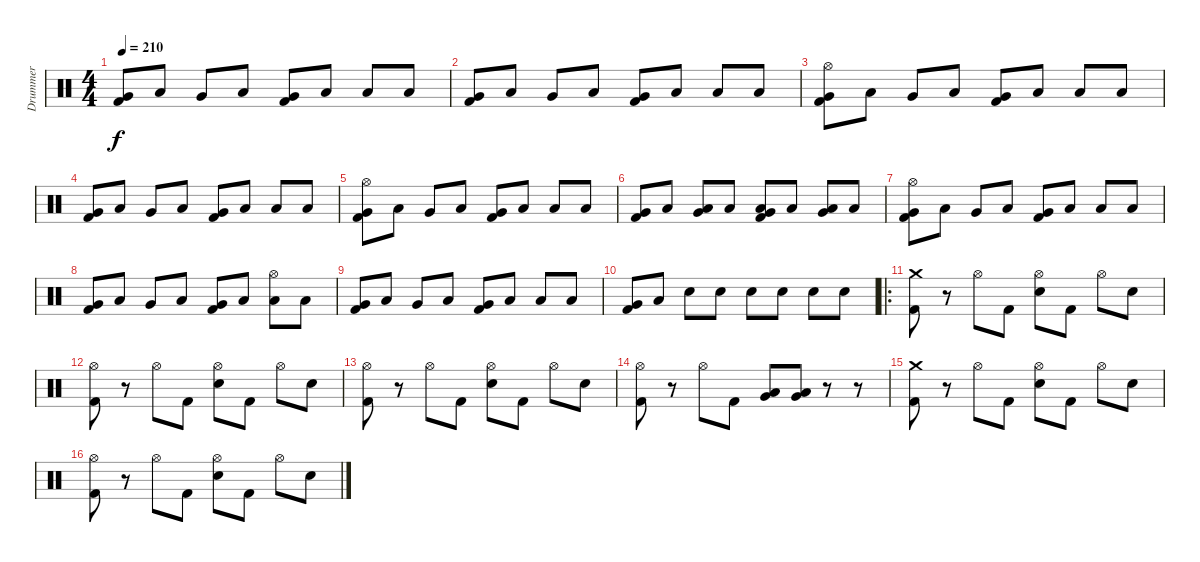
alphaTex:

\track ("Drummer" "Drummer") {instrument percussion}
\staff {score}
\articulation defaults
\ts (4 4)
\tempo 210
\clef neutral
\ks c
("Very Low Tom (hit)" "Kick (hit) 2").8{dy f} "Low Tom (hit)".8 "Very Low Tom (hit)".8 "Low Floor Tom (hit)".8 ("Very Low Tom (hit)" "Kick (hit) 2").8 "Low Floor Tom (hit)".8 "Low Tom (hit)".8 "Low Floor Tom (hit)".8 |
("Very Low Tom (hit)" "Kick (hit) 2").8 "Low Tom (hit)".8 "Very Low Tom (hit)".8 "Low Floor Tom (hit)".8 ("Very Low Tom (hit)" "Kick (hit) 2").8 "Low Floor Tom (hit)".8 "Low Tom (hit)".8 "Low Floor Tom (hit)".8 |
("Hi-Hat (open)" "Very Low Tom (hit)" "Kick (hit) 2").8 "Low Tom (hit)".8 "Very Low Tom (hit)".8 "Low Floor Tom (hit)".8 ("Very Low Tom (hit)" "Kick (hit) 2").8 "Low Floor Tom (hit)".8 "Low Tom (hit)".8 "Low Floor Tom (hit)".8 |
("Very Low Tom (hit)" "Kick (hit) 2").8 "Low Tom (hit)".8 "Very Low Tom (hit)".8 "Low Floor Tom (hit)".8 ("Very Low Tom (hit)" "Kick (hit) 2").8 "Low Floor Tom (hit)".8 "Low Tom (hit)".8 "Low Floor Tom (hit)".8 |
("Hi-Hat (open)" "Very Low Tom (hit)" "Kick (hit) 2").8 "Low Tom (hit)".8 "Very Low Tom (hit)".8 "Low Floor Tom (hit)".8 ("Very Low Tom (hit)" "Kick (hit) 2").8 "Low Floor Tom (hit)".8 "Low Tom (hit)".8 "Low Floor Tom (hit)".8 |
("Very Low Tom (hit)" "Kick (hit) 2").8 "Low Tom (hit)".8 ("Low Tom (hit)" "Very Low Tom (hit)").8 "Low Floor Tom (hit)".8 ("Low Tom (hit)" "Very Low Tom (hit)" "Kick (hit) 2").8 "Low Floor Tom (hit)".8 ("Very Low Tom (hit)" "Low Tom (hit)").8 "Low Floor Tom (hit)".8 |
("Hi-Hat (open)" "Very Low Tom (hit)" "Kick (hit) 2").8 "Low Tom (hit)".8 "Very Low Tom (hit)".8 "Low Floor Tom (hit)".8 ("Very Low Tom (hit)" "Kick (hit) 2").8 "Low Floor Tom (hit)".8 "Low Tom (hit)".8 "Low Floor Tom (hit)".8 |
("Very Low Tom (hit)" "Kick (hit) 2").8 "Low Tom (hit)".8 "Very Low Tom (hit)".8 "Low Floor Tom (hit)".8 ("Very Low Tom (hit)" "Kick (hit) 2").8 "Low Floor Tom (hit)".8 ("Hi-Hat (open)" "Low Tom (hit)").8 "Low Floor Tom (hit)".8 |
("Very Low Tom (hit)" "Kick (hit) 2").8 "Low Tom (hit)".8 "Very Low Tom (hit)".8 "Low Floor Tom (hit)".8 ("Very Low Tom (hit)" "Kick (hit) 2").8 "Low Floor Tom (hit)".8 "Low Tom (hit)".8 "Low Floor Tom (hit)".8 |
("Very Low Tom (hit)" "Kick (hit) 2").8 "Low Tom (hit)".8 "Electric Snare (hit)".8 "Electric Snare (hit)".8 "Electric Snare (hit)".8 "Electric Snare (hit)".8 "Electric Snare (hit)".8 "Electric Snare (hit)".8 |
\ro
("Crash medium (hit)" "Kick (hit) 2").8 r.8 "Hi-Hat (open)".8 "Kick (hit) 2".8 ("Hi-Hat (open)" "Electric Snare (hit)").8 "Kick (hit) 2".8 "Hi-Hat (open)".8 "Electric Snare (hit)".8 |
("Hi-Hat (open)" "Kick (hit) 2").8 r.8 "Hi-Hat (open)".8 "Kick (hit) 2".8 ("Hi-Hat (open)" "Electric Snare (hit)").8 "Kick (hit) 2".8 "Hi-Hat (open)".8 "Electric Snare (hit)".8 |
("Hi-Hat (open)" "Kick (hit) 2").8 r.8 "Hi-Hat (open)".8 "Kick (hit) 2".8 ("Hi-Hat (open)" "Electric Snare (hit)").8 "Kick (hit) 2".8 "Hi-Hat (open)".8 "Electric Snare (hit)".8 |
("Hi-Hat (open)" "Kick (hit) 2").8 r.8 "Hi-Hat (open)".8 "Kick (hit) 2".8 ("Low Tom (hit)" "Very Low Tom (hit)").8 ("Low Tom (hit)" "Very Low Tom (hit)").8 r.8 r.8 |
("Crash medium (hit)" "Kick (hit) 2").8 r.8 "Hi-Hat (open)".8 "Kick (hit) 2".8 ("Hi-Hat (open)" "Electric Snare (hit)").8 "Kick (hit) 2".8 "Hi-Hat (open)".8 "Electric Snare (hit)".8 |
("Hi-Hat (open)" "Kick (hit) 2").8 r.8 "Hi-Hat (open)".8 "Kick (hit) 2".8 ("Hi-Hat (open)" "Electric Snare (hit)").8 "Kick (hit) 2".8 "Hi-Hat (open)".8 "Electric Snare (hit)".8
